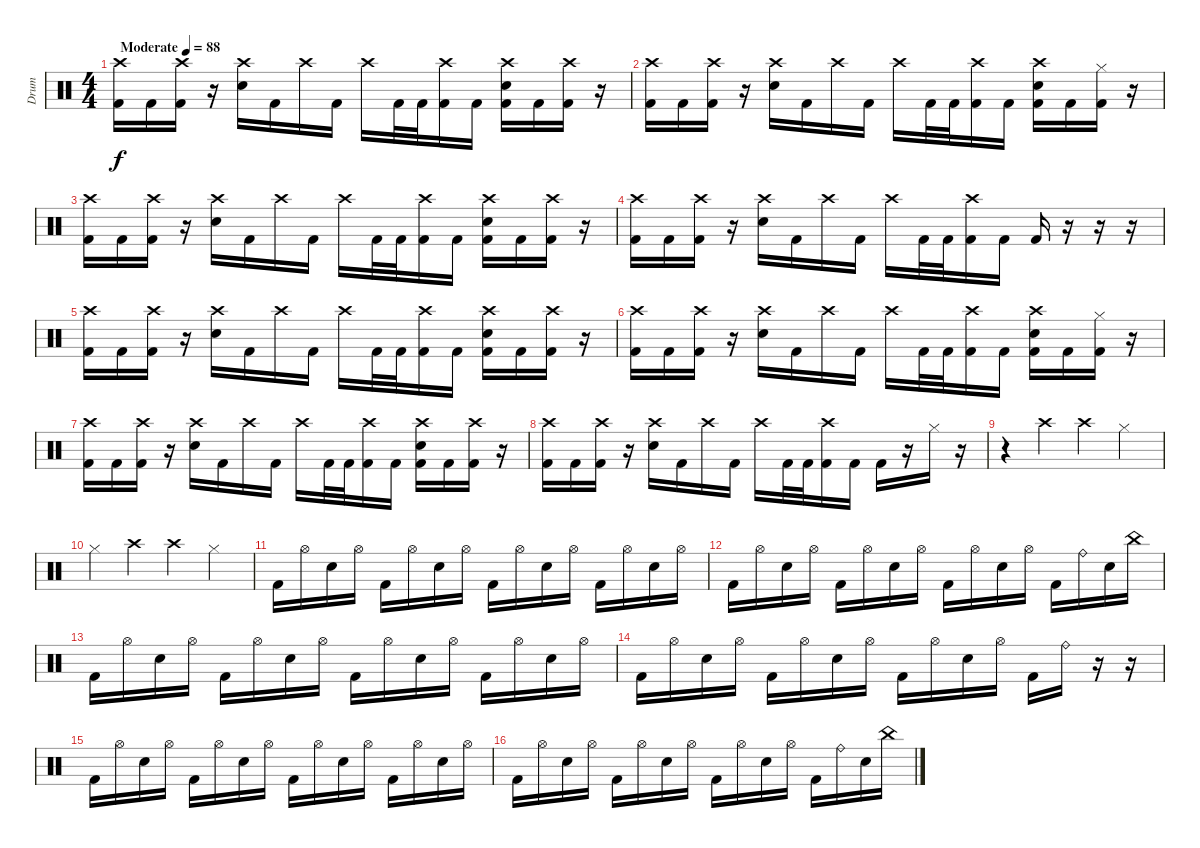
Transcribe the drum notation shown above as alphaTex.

\track ("Drum" "Drum") {instrument percussion}
\staff {score}
\articulation defaults
\ts (4 4)
\tempo (88 "Moderate")
\clef neutral
\ks c
("Crash high (hit)" "Kick (hit) 2").16{dy f} "Kick (hit) 2".16 ("Crash high (hit)" "Kick (hit) 2").16 r.16 ("Crash high (hit)" "Snare (hit) 2").16 "Kick (hit) 2".16 "Crash high (hit)".16 "Kick (hit) 2".16 "Crash high (hit)".16 "Kick (hit) 2".32 "Kick (hit) 2".32 ("Crash high (hit)" "Kick (hit) 2").16 "Kick (hit) 2".16 ("Crash high (hit)" "Snare (hit) 2" "Kick (hit) 2").16 "Kick (hit) 2".16 ("Crash high (hit)" "Kick (hit) 2").16 r.16 |
("Crash high (hit)" "Kick (hit) 2").16 "Kick (hit) 2".16 ("Crash high (hit)" "Kick (hit) 2").16 r.16 ("Crash high (hit)" "Snare (hit) 2").16 "Kick (hit) 2".16 "Crash high (hit)".16 "Kick (hit) 2".16 "Crash high (hit)".16 "Kick (hit) 2".32 "Kick (hit) 2".32 ("Crash high (hit)" "Kick (hit) 2").16 "Kick (hit) 2".16 ("Crash high (hit)" "Snare (hit) 2" "Kick (hit) 2").16 "Kick (hit) 2".16 ("Hi-Hat (closed)" "Kick (hit) 2").16 r.16 |
("Crash high (hit)" "Kick (hit) 2").16 "Kick (hit) 2".16 ("Crash high (hit)" "Kick (hit) 2").16 r.16 ("Crash high (hit)" "Snare (hit) 2").16 "Kick (hit) 2".16 "Crash high (hit)".16 "Kick (hit) 2".16 "Crash high (hit)".16 "Kick (hit) 2".32 "Kick (hit) 2".32 ("Crash high (hit)" "Kick (hit) 2").16 "Kick (hit) 2".16 ("Crash high (hit)" "Snare (hit) 2" "Kick (hit) 2").16 "Kick (hit) 2".16 ("Crash high (hit)" "Kick (hit) 2").16 r.16 |
("Crash high (hit)" "Kick (hit) 2").16 "Kick (hit) 2".16 ("Crash high (hit)" "Kick (hit) 2").16 r.16 ("Crash high (hit)" "Snare (hit) 2").16 "Kick (hit) 2".16 "Crash high (hit)".16 "Kick (hit) 2".16 "Crash high (hit)".16 "Kick (hit) 2".32 "Kick (hit) 2".32 ("Crash high (hit)" "Kick (hit) 2").16 "Kick (hit) 2".16 "Kick (hit) 2".16 r.16 r.16 r.16 |
("Crash high (hit)" "Kick (hit) 2").16 "Kick (hit) 2".16 ("Crash high (hit)" "Kick (hit) 2").16 r.16 ("Crash high (hit)" "Snare (hit) 2").16 "Kick (hit) 2".16 "Crash high (hit)".16 "Kick (hit) 2".16 "Crash high (hit)".16 "Kick (hit) 2".32 "Kick (hit) 2".32 ("Crash high (hit)" "Kick (hit) 2").16 "Kick (hit) 2".16 ("Crash high (hit)" "Snare (hit) 2" "Kick (hit) 2").16 "Kick (hit) 2".16 ("Crash high (hit)" "Kick (hit) 2").16 r.16 |
("Crash high (hit)" "Kick (hit) 2").16 "Kick (hit) 2".16 ("Crash high (hit)" "Kick (hit) 2").16 r.16 ("Crash high (hit)" "Snare (hit) 2").16 "Kick (hit) 2".16 "Crash high (hit)".16 "Kick (hit) 2".16 "Crash high (hit)".16 "Kick (hit) 2".32 "Kick (hit) 2".32 ("Crash high (hit)" "Kick (hit) 2").16 "Kick (hit) 2".16 ("Crash high (hit)" "Snare (hit) 2" "Kick (hit) 2").16 "Kick (hit) 2".16 ("Hi-Hat (closed)" "Kick (hit) 2").16 r.16 |
("Crash high (hit)" "Kick (hit) 2").16 "Kick (hit) 2".16 ("Crash high (hit)" "Kick (hit) 2").16 r.16 ("Crash high (hit)" "Snare (hit) 2").16 "Kick (hit) 2".16 "Crash high (hit)".16 "Kick (hit) 2".16 "Crash high (hit)".16 "Kick (hit) 2".32 "Kick (hit) 2".32 ("Crash high (hit)" "Kick (hit) 2").16 "Kick (hit) 2".16 ("Crash high (hit)" "Snare (hit) 2" "Kick (hit) 2").16 "Kick (hit) 2".16 ("Crash high (hit)" "Kick (hit) 2").16 r.16 |
("Crash high (hit)" "Kick (hit) 2").16 "Kick (hit) 2".16 ("Crash high (hit)" "Kick (hit) 2").16 r.16 ("Crash high (hit)" "Snare (hit) 2").16 "Kick (hit) 2".16 "Crash high (hit)".16 "Kick (hit) 2".16 "Crash high (hit)".16 "Kick (hit) 2".32 "Kick (hit) 2".32 ("Crash high (hit)" "Kick (hit) 2").16 "Kick (hit) 2".16 "Kick (hit) 2".16 r.16 "Hi-Hat (closed)".16 r.16 |
r.4 "Crash high (hit)".4 "Crash high (hit)".4 "Hi-Hat (closed)".4 |
"Hi-Hat (closed)".4 "Crash high (hit)".4 "Crash high (hit)".4 "Hi-Hat (closed)".4 |
"Kick (hit) 2".16 "Hi-Hat (open)".16 "Electric Snare (hit)".16 "Hi-Hat (open)".16 "Kick (hit) 2".16 "Hi-Hat (open)".16 "Electric Snare (hit)".16 "Hi-Hat (open)".16 "Kick (hit) 2".16 "Hi-Hat (open)".16 "Electric Snare (hit)".16 "Hi-Hat (open)".16 "Kick (hit) 2".16 "Hi-Hat (open)".16 "Electric Snare (hit)".16 "Hi-Hat (open)".16 |
"Kick (hit) 2".16 "Hi-Hat (open)".16 "Electric Snare (hit)".16 "Hi-Hat (open)".16 "Kick (hit) 2".16 "Hi-Hat (open)".16 "Electric Snare (hit)".16 "Hi-Hat (open)".16 "Kick (hit) 2".16 "Hi-Hat (open)".16 "Electric Snare (hit)".16 "Hi-Hat (open)".16 "Kick (hit) 2".16 "Ride (bell)".16 "Electric Snare (hit)".16 "China (hit)".16 |
"Kick (hit) 2".16 "Hi-Hat (open)".16 "Electric Snare (hit)".16 "Hi-Hat (open)".16 "Kick (hit) 2".16 "Hi-Hat (open)".16 "Electric Snare (hit)".16 "Hi-Hat (open)".16 "Kick (hit) 2".16 "Hi-Hat (open)".16 "Electric Snare (hit)".16 "Hi-Hat (open)".16 "Kick (hit) 2".16 "Hi-Hat (open)".16 "Electric Snare (hit)".16 "Hi-Hat (open)".16 |
"Kick (hit) 2".16 "Hi-Hat (open)".16 "Electric Snare (hit)".16 "Hi-Hat (open)".16 "Kick (hit) 2".16 "Hi-Hat (open)".16 "Electric Snare (hit)".16 "Hi-Hat (open)".16 "Kick (hit) 2".16 "Hi-Hat (open)".16 "Electric Snare (hit)".16 "Hi-Hat (open)".16 "Kick (hit) 2".16 "Ride (bell)".16 r.16 r.16 |
"Kick (hit) 2".16 "Hi-Hat (open)".16 "Electric Snare (hit)".16 "Hi-Hat (open)".16 "Kick (hit) 2".16 "Hi-Hat (open)".16 "Electric Snare (hit)".16 "Hi-Hat (open)".16 "Kick (hit) 2".16 "Hi-Hat (open)".16 "Electric Snare (hit)".16 "Hi-Hat (open)".16 "Kick (hit) 2".16 "Hi-Hat (open)".16 "Electric Snare (hit)".16 "Hi-Hat (open)".16 |
"Kick (hit) 2".16 "Hi-Hat (open)".16 "Electric Snare (hit)".16 "Hi-Hat (open)".16 "Kick (hit) 2".16 "Hi-Hat (open)".16 "Electric Snare (hit)".16 "Hi-Hat (open)".16 "Kick (hit) 2".16 "Hi-Hat (open)".16 "Electric Snare (hit)".16 "Hi-Hat (open)".16 "Kick (hit) 2".16 "Ride (bell)".16 "Electric Snare (hit)".16 "China (hit)".16
